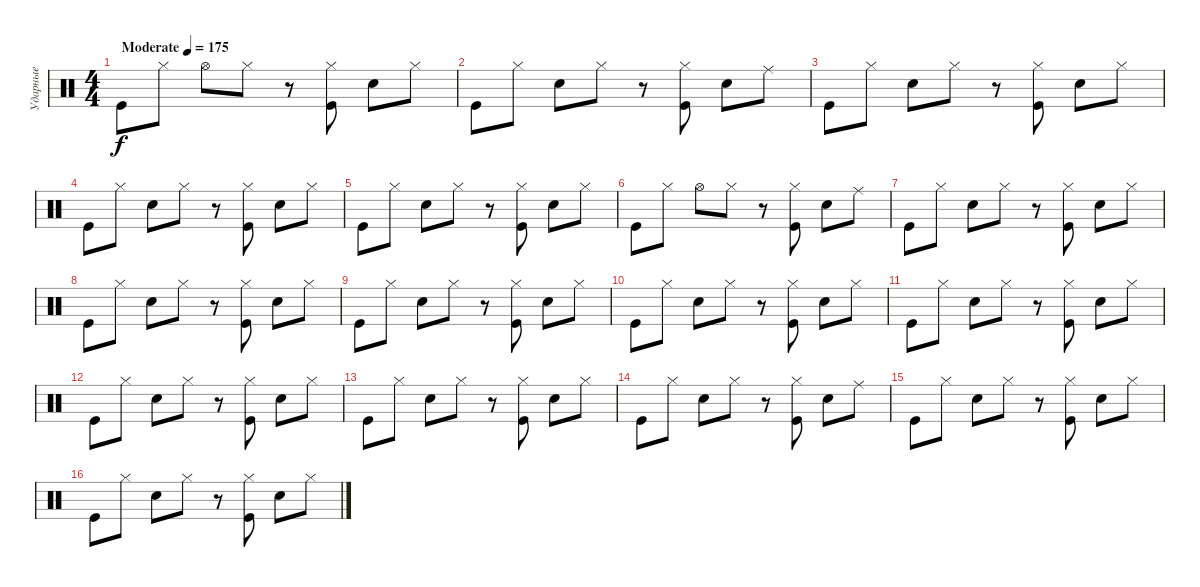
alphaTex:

\track ("Ударные" "Ударные") {instrument percussion}
\staff {score}
\articulation defaults
\ts (4 4)
\tempo (175 "Moderate")
\clef neutral
\ks c "Kick (hit)".8{dy f} "Hi-Hat (closed)".8 "Hi-Hat (open)".8 "Hi-Hat (closed)".8
r.8 ("Hi-Hat (closed)" "Kick (hit)").8 "Electric Snare (hit)".8 "Hi-Hat (closed)".8 |
"Kick (hit)".8 "Hi-Hat (closed)".8 "Electric Snare (hit)".8 "Hi-Hat (closed)".8 r.8 ("Hi-Hat (closed)" "Kick (hit)").8 "Electric Snare (hit)".8 "Ride (middle)".8 |
"Kick (hit)".8 "Hi-Hat (closed)".8 "Electric Snare (hit)".8 "Hi-Hat (closed)".8 r.8 ("Hi-Hat (closed)" "Kick (hit)").8 "Electric Snare (hit)".8 "Hi-Hat (closed)".8 |
"Kick (hit)".8 "Hi-Hat (closed)".8 "Electric Snare (hit)".8 "Hi-Hat (closed)".8 r.8 ("Hi-Hat (closed)" "Kick (hit)").8 "Electric Snare (hit)".8 "Hi-Hat (closed)".8 |
"Kick (hit)".8 "Hi-Hat (closed)".8 "Electric Snare (hit)".8 "Hi-Hat (closed)".8 r.8 ("Hi-Hat (closed)" "Kick (hit)").8 "Electric Snare (hit)".8 "Hi-Hat (closed)".8 |
"Kick (hit)".8 "Hi-Hat (closed)".8 "Hi-Hat (open)".8 "Hi-Hat (closed)".8 r.8 ("Hi-Hat (closed)" "Kick (hit)").8 "Electric Snare (hit)".8 "Ride (middle)".8 |
"Kick (hit)".8 "Hi-Hat (closed)".8 "Electric Snare (hit)".8 "Hi-Hat (closed)".8 r.8 ("Hi-Hat (closed)" "Kick (hit)").8 "Electric Snare (hit)".8 "Hi-Hat (closed)".8 |
"Kick (hit)".8 "Hi-Hat (closed)".8 "Electric Snare (hit)".8 "Hi-Hat (closed)".8 r.8 ("Hi-Hat (closed)" "Kick (hit)").8 "Electric Snare (hit)".8 "Hi-Hat (closed)".8 |
"Kick (hit)".8 "Hi-Hat (closed)".8 "Electric Snare (hit)".8 "Hi-Hat (closed)".8 r.8 ("Hi-Hat (closed)" "Kick (hit)").8 "Electric Snare (hit)".8 "Hi-Hat (closed)".8 |
"Kick (hit)".8 "Hi-Hat (closed)".8 "Electric Snare (hit)".8 "Hi-Hat (closed)".8 r.8 ("Hi-Hat (closed)" "Kick (hit)").8 "Electric Snare (hit)".8 "Hi-Hat (closed)".8 |
"Kick (hit)".8 "Hi-Hat (closed)".8 "Electric Snare (hit)".8 "Hi-Hat (closed)".8 r.8 ("Hi-Hat (closed)" "Kick (hit)").8 "Electric Snare (hit)".8 "Hi-Hat (closed)".8 |
"Kick (hit)".8 "Hi-Hat (closed)".8 "Electric Snare (hit)".8 "Hi-Hat (closed)".8 r.8 ("Hi-Hat (closed)" "Kick (hit)").8 "Electric Snare (hit)".8 "Hi-Hat (closed)".8 |
"Kick (hit)".8 "Hi-Hat (closed)".8 "Electric Snare (hit)".8 "Hi-Hat (closed)".8 r.8 ("Hi-Hat (closed)" "Kick (hit)").8 "Electric Snare (hit)".8 "Hi-Hat (closed)".8 |
"Kick (hit)".8 "Hi-Hat (closed)".8 "Electric Snare (hit)".8 "Hi-Hat (closed)".8 r.8 ("Hi-Hat (closed)" "Kick (hit)").8 "Electric Snare (hit)".8 "Ride (middle)".8 |
"Kick (hit)".8 "Hi-Hat (closed)".8 "Electric Snare (hit)".8 "Hi-Hat (closed)".8 r.8 ("Hi-Hat (closed)" "Kick (hit)").8 "Electric Snare (hit)".8 "Hi-Hat (closed)".8 |
"Kick (hit)".8 "Hi-Hat (closed)".8 "Electric Snare (hit)".8 "Hi-Hat (closed)".8 r.8 ("Hi-Hat (closed)" "Kick (hit)").8 "Electric Snare (hit)".8 "Hi-Hat (closed)".8
